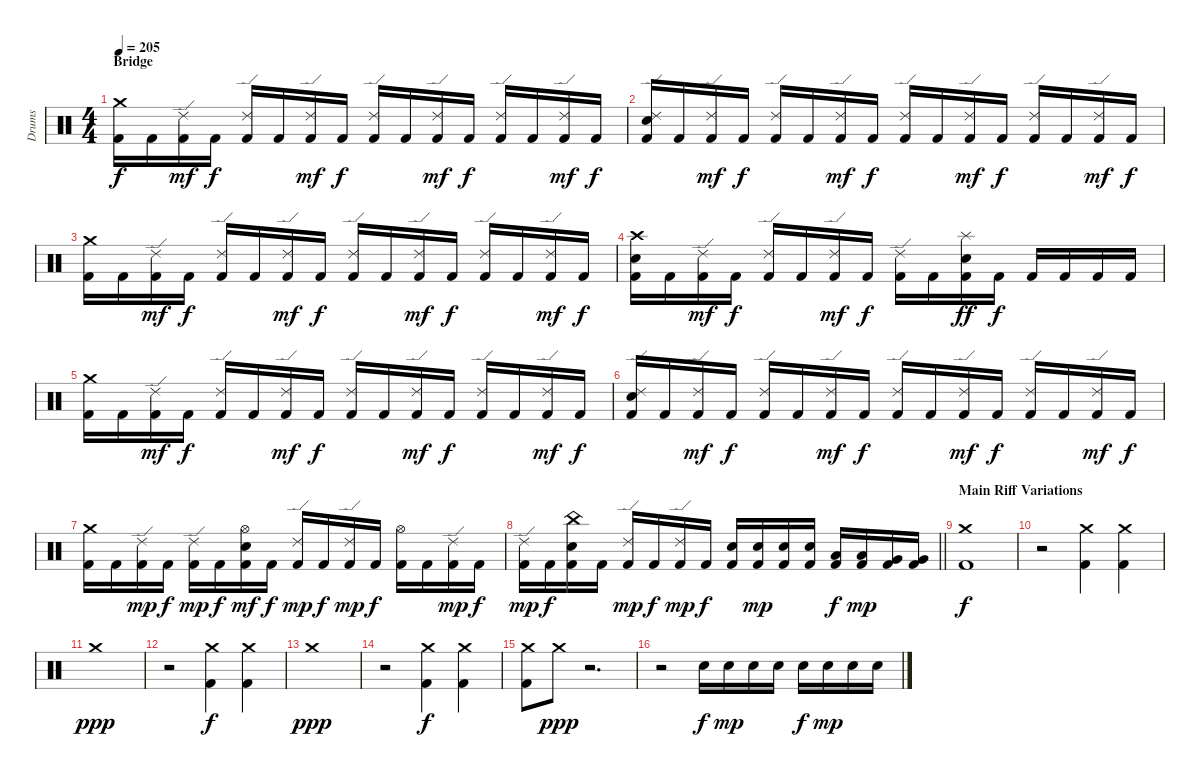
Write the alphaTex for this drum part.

\track ("Drums" "Drums") {instrument percussion}
\staff {score}
\articulation defaults
\ts (4 4)
\section ("" "Bridge")
\tempo 205
\clef neutral
\ks c
("Crash medium (hit)" "Kick (hit) 2").16{dy f} "Kick (hit) 2".16 ("Ride (edge) 2" "Kick (hit) 2").16{dy mf} "Kick (hit) 2".16{dy f} ("Ride (edge) 2" "Kick (hit) 2").16 "Kick (hit) 2".16 ("Ride (edge) 2" "Kick (hit) 2").16{dy mf} "Kick (hit) 2".16{dy f} ("Ride (edge) 2" "Kick (hit) 2").16 "Kick (hit) 2".16 ("Ride (edge) 2" "Kick (hit) 2").16{dy mf} "Kick (hit) 2".16{dy f} ("Ride (edge) 2" "Kick (hit) 2").16 "Kick (hit) 2".16 ("Ride (edge) 2" "Kick (hit) 2").16{dy mf} "Kick (hit) 2".16{dy f} |
("Ride (edge) 2" "Electric Snare (hit)" "Kick (hit) 2").16 "Kick (hit) 2".16 ("Ride (edge) 2" "Kick (hit) 2").16{dy mf} "Kick (hit) 2".16{dy f} ("Ride (edge) 2" "Kick (hit) 2").16 "Kick (hit) 2".16 ("Ride (edge) 2" "Kick (hit) 2").16{dy mf} "Kick (hit) 2".16{dy f} ("Ride (edge) 2" "Kick (hit) 2").16 "Kick (hit) 2".16 ("Ride (edge) 2" "Kick (hit) 2").16{dy mf} "Kick (hit) 2".16{dy f} ("Ride (edge) 2" "Kick (hit) 2").16 "Kick (hit) 2".16 ("Ride (edge) 2" "Kick (hit) 2").16{dy mf} "Kick (hit) 2".16{dy f} |
("Crash medium (hit)" "Kick (hit) 2").16 "Kick (hit) 2".16 ("Ride (edge) 2" "Kick (hit) 2").16{dy mf} "Kick (hit) 2".16{dy f} ("Ride (edge) 2" "Kick (hit) 2").16 "Kick (hit) 2".16 ("Ride (edge) 2" "Kick (hit) 2").16{dy mf} "Kick (hit) 2".16{dy f} ("Ride (edge) 2" "Kick (hit) 2").16 "Kick (hit) 2".16 ("Ride (edge) 2" "Kick (hit) 2").16{dy mf} "Kick (hit) 2".16{dy f} ("Ride (edge) 2" "Kick (hit) 2").16 "Kick (hit) 2".16 ("Ride (edge) 2" "Kick (hit) 2").16{dy mf} "Kick (hit) 2".16{dy f} |
("Crash high (hit)" "Electric Snare (hit)" "Kick (hit) 2").16 "Kick (hit) 2".16 ("Ride (edge) 2" "Kick (hit) 2").16{dy mf} "Kick (hit) 2".16{dy f} ("Ride (edge) 2" "Kick (hit) 2").16 "Kick (hit) 2".16 ("Ride (edge) 2" "Kick (hit) 2").16{dy mf} "Kick (hit) 2".16{dy f} ("Ride (edge) 2" "Kick (hit) 2").16 "Kick (hit) 2".16 ("Splash (hit)" "Electric Snare (hit)" "Kick (hit) 2").16{dy ff} "Kick (hit) 2".16{dy f} "Kick (hit) 2".16 "Kick (hit) 2".16 "Kick (hit) 2".16 "Kick (hit) 2".16 |
("Crash medium (hit)" "Kick (hit) 2").16 "Kick (hit) 2".16 ("Ride (edge) 2" "Kick (hit) 2").16{dy mf} "Kick (hit) 2".16{dy f} ("Ride (edge) 2" "Kick (hit) 2").16 "Kick (hit) 2".16 ("Ride (edge) 2" "Kick (hit) 2").16{dy mf} "Kick (hit) 2".16{dy f} ("Ride (edge) 2" "Kick (hit) 2").16 "Kick (hit) 2".16 ("Ride (edge) 2" "Kick (hit) 2").16{dy mf} "Kick (hit) 2".16{dy f} ("Ride (edge) 2" "Kick (hit) 2").16 "Kick (hit) 2".16 ("Ride (edge) 2" "Kick (hit) 2").16{dy mf} "Kick (hit) 2".16{dy f} |
("Ride (edge) 2" "Electric Snare (hit)" "Kick (hit) 2").16 "Kick (hit) 2".16 ("Ride (edge) 2" "Kick (hit) 2").16{dy mf} "Kick (hit) 2".16{dy f} ("Ride (edge) 2" "Kick (hit) 2").16 "Kick (hit) 2".16 ("Ride (edge) 2" "Kick (hit) 2").16{dy mf} "Kick (hit) 2".16{dy f} ("Ride (edge) 2" "Kick (hit) 2").16 "Kick (hit) 2".16 ("Ride (edge) 2" "Kick (hit) 2").16{dy mf} "Kick (hit) 2".16{dy f} ("Ride (edge) 2" "Kick (hit) 2").16 "Kick (hit) 2".16 ("Ride (edge) 2" "Kick (hit) 2").16{dy mf} "Kick (hit) 2".16{dy f} |
("Crash medium (hit)" "Kick (hit) 2").16 "Kick (hit) 2".16 ("Ride (edge) 2" "Kick (hit) 2").16{dy mp} "Kick (hit) 2".16{dy f} ("Ride (edge) 2" "Kick (hit) 2").16{dy mp} "Kick (hit) 2".16{dy f} ("Hi-Hat (open)" "Electric Snare (hit)" "Kick (hit) 2").16{dy mf} "Kick (hit) 2".16{dy f} ("Ride (edge) 2" "Kick (hit) 2").16{dy mp} "Kick (hit) 2".16{dy f} ("Ride (edge) 2" "Kick (hit) 2").16{dy mp} "Kick (hit) 2".16{dy f} ("Hi-Hat (open)" "Kick (hit) 2").16 "Kick (hit) 2".16 ("Ride (edge) 2" "Kick (hit) 2").16{dy mp} "Kick (hit) 2".16{dy f} |
\barLineRight lightlight
("Ride (edge) 2" "Kick (hit) 2").16{dy mp} "Kick (hit) 2".16{dy f} ("China (hit)" "Electric Snare (hit)" "Kick (hit) 2").16 "Kick (hit) 2".16 ("Ride (edge) 2" "Kick (hit) 2").16{dy mp} "Kick (hit) 2".16{dy f} ("Ride (edge) 2" "Kick (hit) 2").16{dy mp} "Kick (hit) 2".16{dy f} ("Electric Snare (hit)" "Kick (hit) 2").16 ("Electric Snare (hit)" "Kick (hit) 2").16{dy mp} ("Electric Snare (hit)" "Kick (hit) 2").16 ("Electric Snare (hit)" "Kick (hit) 2").16 ("Low Tom (hit)" "Kick (hit) 2").16{dy f} ("Low Tom (hit)" "Kick (hit) 2").16{dy mp} ("Very Low Tom (hit)" "Kick (hit) 2").16 ("Very Low Tom (hit)" "Kick (hit) 2").16 |
\section ("" "Main Riff Variations")
("Crash medium (hit)" "Kick (hit) 2").1{dy f} |
r.2 ("Crash medium (hit)" "Kick (hit) 2").4 ("Crash medium (hit)" "Kick (hit) 2").4 |
"Crash medium (hit)".1{dy ppp} |
r.2 ("Crash medium (hit)" "Kick (hit) 2").4{dy f} ("Crash medium (hit)" "Kick (hit) 2").4 |
"Crash medium (hit)".1{dy ppp} |
r.2 ("Crash medium (hit)" "Kick (hit) 2").4{dy f} ("Crash medium (hit)" "Kick (hit) 2").4 |
("Crash medium (hit)" "Kick (hit) 2").8 "Crash medium (hit)".8{dy ppp} r.2{d} |
r.2 "Electric Snare (hit)".16{dy f} "Electric Snare (hit)".16{dy mp} "Electric Snare (hit)".16 "Electric Snare (hit)".16 "Electric Snare (hit)".16{dy f} "Electric Snare (hit)".16{dy mp} "Electric Snare (hit)".16 "Electric Snare (hit)".16
